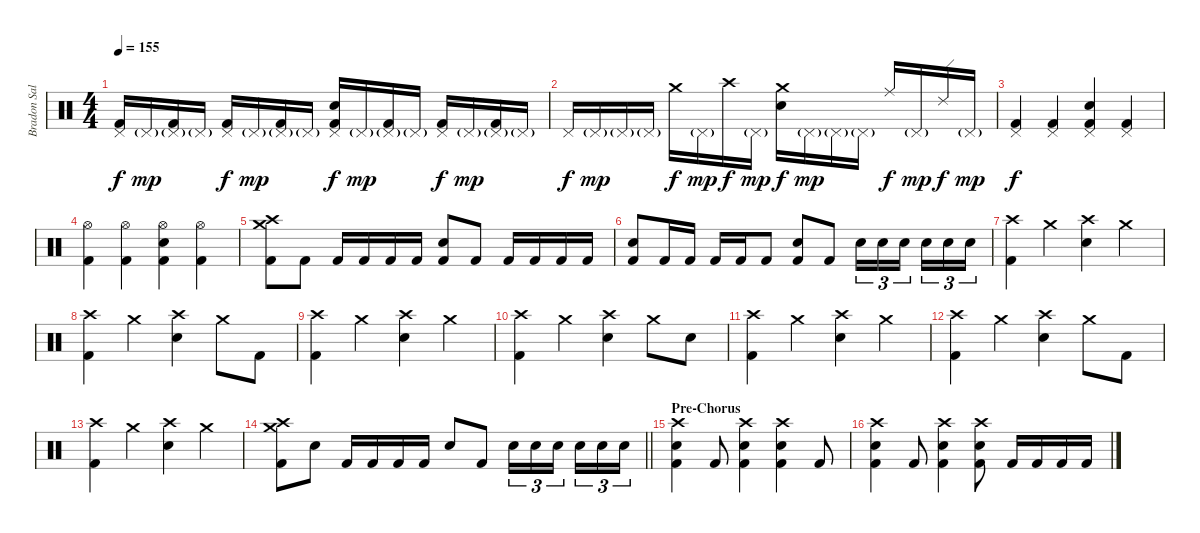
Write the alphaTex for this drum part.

\track ("Bradon Saller" "Bradon Sal") {instrument percussion}
\staff {score}
\articulation defaults
\ts (4 4)
\tempo 155
\clef neutral
\ks c
("Pedal Hi-Hat (hit)" "Kick (hit) 2").16{dy f} "Pedal Hi-Hat (hit)"{g}.16{dy mp} ("Pedal Hi-Hat (hit)"{g} "Kick (hit) 2").16 "Pedal Hi-Hat (hit)"{g}.16 ("Pedal Hi-Hat (hit)" "Kick (hit) 2").16{dy f} "Pedal Hi-Hat (hit)"{g}.16{dy mp} ("Pedal Hi-Hat (hit)"{g} "Kick (hit) 2").16 "Pedal Hi-Hat (hit)"{g}.16 ("Pedal Hi-Hat (hit)" "Electric Snare (hit)" "Kick (hit) 2").16{dy f} "Pedal Hi-Hat (hit)"{g}.16{dy mp} ("Pedal Hi-Hat (hit)"{g} "Kick (hit) 2").16 "Pedal Hi-Hat (hit)"{g}.16 ("Pedal Hi-Hat (hit)" "Kick (hit) 2").16{dy f} "Pedal Hi-Hat (hit)"{g}.16{dy mp} ("Pedal Hi-Hat (hit)"{g} "Kick (hit) 2").16 "Pedal Hi-Hat (hit)"{g}.16 |
"Pedal Hi-Hat (hit)".16{dy f} "Pedal Hi-Hat (hit)"{g}.16{dy mp} "Pedal Hi-Hat (hit)"{g}.16 "Pedal Hi-Hat (hit)"{g}.16 "Crash medium (hit)".16{dy f} "Pedal Hi-Hat (hit)"{g}.16{dy mp} "Crash high (hit)".16{dy f} "Pedal Hi-Hat (hit)"{g}.16{dy mp} ("Crash medium (hit)" "Electric Snare (hit)").16{dy f} "Pedal Hi-Hat (hit)"{g}.16{dy mp} "Pedal Hi-Hat (hit)"{g}.16 "Pedal Hi-Hat (hit)"{g}.16 "Ride (middle)".16{dy f} "Pedal Hi-Hat (hit)"{g}.16{dy mp} "Ride (edge) 2".16{dy f} "Pedal Hi-Hat (hit)"{g}.16{dy mp} |
("Pedal Hi-Hat (hit)" "Kick (hit) 2").4{dy f} ("Pedal Hi-Hat (hit)" "Kick (hit) 2").4 ("Pedal Hi-Hat (hit)" "Electric Snare (hit)" "Kick (hit) 2").4 ("Pedal Hi-Hat (hit)" "Kick (hit) 2").4 |
("Hi-Hat (open)" "Kick (hit) 2").4 ("Hi-Hat (open)" "Kick (hit) 2").4 ("Hi-Hat (open)" "Electric Snare (hit)" "Kick (hit) 2").4 ("Hi-Hat (open)" "Kick (hit) 2").4 |
("Crash high (hit)" "Crash medium (hit)" "Kick (hit) 2").8 "Kick (hit) 2".8 "Kick (hit) 2".16 "Kick (hit) 2".16 "Kick (hit) 2".16 "Kick (hit) 2".16 ("Electric Snare (hit)" "Kick (hit) 2").8 "Kick (hit) 2".8 "Kick (hit) 2".16 "Kick (hit) 2".16 "Kick (hit) 2".16 "Kick (hit) 2".16 |
("Electric Snare (hit)" "Kick (hit) 2").8 "Kick (hit) 2".16 "Kick (hit) 2".16 "Kick (hit) 2".16 "Kick (hit) 2".16 "Kick (hit) 2".8 ("Electric Snare (hit)" "Kick (hit) 2").8 "Kick (hit) 2".8 "Electric Snare (hit)".16{tu (3 2)} "Electric Snare (hit)".16{tu (3 2)} "Electric Snare (hit)".16{tu (3 2) beam splitsecondary} "Electric Snare (hit)".16{tu (3 2)} "Electric Snare (hit)".16{tu (3 2)} "Electric Snare (hit)".16{tu (3 2)} |
("Crash high (hit)" "Kick (hit) 2").4 "Crash medium (hit)".4 ("Crash high (hit)" "Electric Snare (hit)").4 "Crash medium (hit)".4 |
("Crash high (hit)" "Kick (hit) 2").4 "Crash medium (hit)".4 ("Crash high (hit)" "Electric Snare (hit)").4 "Crash medium (hit)".8 "Kick (hit) 2".8 |
("Crash high (hit)" "Kick (hit) 2").4 "Crash medium (hit)".4 ("Crash high (hit)" "Electric Snare (hit)").4 "Crash medium (hit)".4 |
("Crash high (hit)" "Kick (hit) 2").4 "Crash medium (hit)".4 ("Crash high (hit)" "Electric Snare (hit)").4 "Crash medium (hit)".8 "Electric Snare (hit)".8 |
("Crash high (hit)" "Kick (hit) 2").4 "Crash medium (hit)".4 ("Crash high (hit)" "Electric Snare (hit)").4 "Crash medium (hit)".4 |
("Crash high (hit)" "Kick (hit) 2").4 "Crash medium (hit)".4 ("Crash high (hit)" "Electric Snare (hit)").4 "Crash medium (hit)".8 "Kick (hit) 2".8 |
("Crash high (hit)" "Kick (hit) 2").4 "Crash medium (hit)".4 ("Crash high (hit)" "Electric Snare (hit)").4 "Crash medium (hit)".4 |
\barLineRight lightlight
("Crash high (hit)" "Crash medium (hit)" "Kick (hit) 2").8 "Electric Snare (hit)".8 "Kick (hit) 2".16 "Kick (hit) 2".16 "Kick (hit) 2".16 "Kick (hit) 2".16 "Electric Snare (hit)".8 "Kick (hit) 2".8 "Electric Snare (hit)".16{tu (3 2)} "Electric Snare (hit)".16{tu (3 2)} "Electric Snare (hit)".16{tu (3 2) beam splitsecondary} "Electric Snare (hit)".16{tu (3 2)} "Electric Snare (hit)".16{tu (3 2)} "Electric Snare (hit)".16{tu (3 2)} |
\section ("" "Pre-Chorus")
("Crash high (hit)" "Electric Snare (hit)" "Kick (hit) 2").4 "Kick (hit) 2".8 ("Crash high (hit)" "Electric Snare (hit)" "Kick (hit) 2").4 ("Crash high (hit)" "Electric Snare (hit)" "Kick (hit) 2").4 "Kick (hit) 2".8 |
("Crash high (hit)" "Electric Snare (hit)" "Kick (hit) 2").4 "Kick (hit) 2".8 ("Crash high (hit)" "Electric Snare (hit)" "Kick (hit) 2").4 ("Crash high (hit)" "Electric Snare (hit)" "Kick (hit) 2").8 "Kick (hit) 2".16 "Kick (hit) 2".16 "Kick (hit) 2".16 "Kick (hit) 2".16
